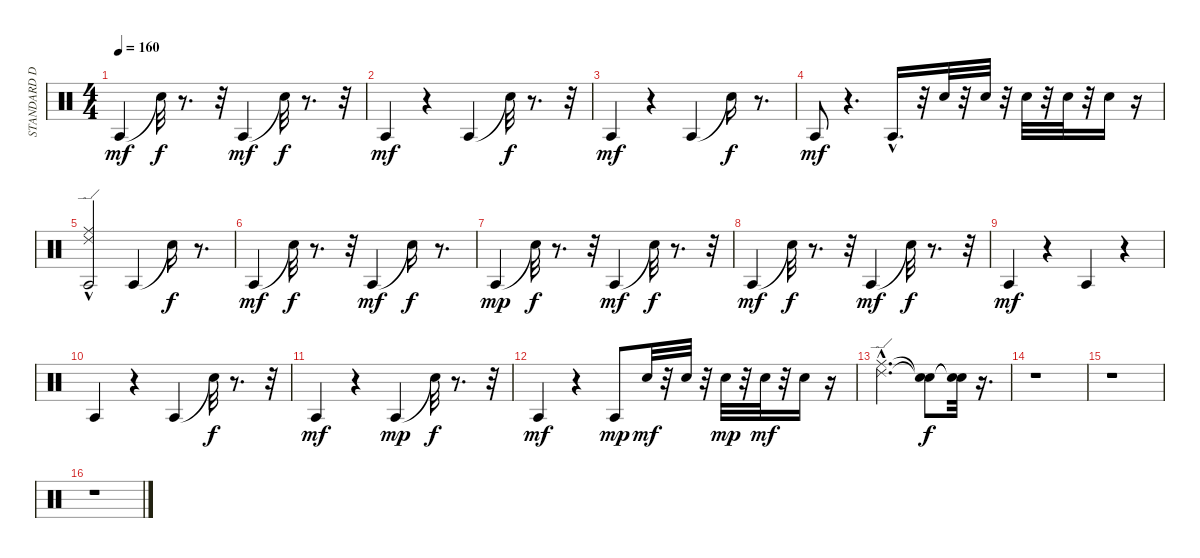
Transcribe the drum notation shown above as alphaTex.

\track ("STANDARD DRUMS" "STANDARD D") {instrument percussion}
\staff {score}
\articulation defaults
\ts (4 4)
\tempo 160
\clef neutral
\ks c "Agogo tow (hit)".4{dy mf} "Snare (hit)"{t}.32{dy f}
r.8{d} r.32 "Agogo tow (hit)".4{dy mf} "Snare (hit)"{t}.32{dy f} r.8{d} r.32 |
"Agogo tow (hit)".4{dy mf} r.4 "Agogo tow (hit)".4 "Snare (hit)"{t}.32{dy f} r.8{d} r.32 |
"Agogo tow (hit)".4{dy mf} r.4 "Agogo tow (hit)".4 "Snare (hit)"{t}.16{dy f} r.8{d} |
"Agogo tow (hit)".8{dy mf} r.4{d} "Agogo tow (hit)"{hac}.16{d} r.32 "Electric Snare (hit)".32 r.32 "Electric Snare (hit)".32 r.32 "Electric Snare (hit)".32 r.32 "Electric Snare (hit)".32 r.32 "Electric Snare (hit)".16 r.16 |
("Ride (edge) 2"{hac} "Ride (middle)" "Agogo tow (hit)").2 "Agogo tow (hit)".4 "Snare (hit)"{t}.16{dy f} r.8{d} |
"Agogo tow (hit)".4{dy mf} "Snare (hit)"{t}.32{dy f} r.8{d} r.32 "Agogo tow (hit)".4{dy mf} "Snare (hit)"{t}.16{dy f} r.8{d} |
"Agogo tow (hit)".4{dy mp} "Snare (hit)"{t}.32{dy f} r.8{d} r.32 "Agogo tow (hit)".4{dy mf} "Snare (hit)"{t}.32{dy f} r.8{d} r.32 |
"Agogo tow (hit)".4{dy mf} "Snare (hit)"{t}.32{dy f} r.8{d} r.32 "Agogo tow (hit)".4{dy mf} "Snare (hit)"{t}.32{dy f} r.8{d} r.32 |
"Agogo tow (hit)".4{dy mf} r.4 "Agogo tow (hit)".4 r.4 |
"Agogo tow (hit)".4 r.4 "Agogo tow (hit)".4 "Snare (hit)"{t}.32{dy f} r.8{d} r.32 |
"Agogo tow (hit)".4{dy mf} r.4 "Agogo tow (hit)".4{dy mp} "Snare (hit)"{t}.32{dy f} r.8{d} r.32 |
"Agogo tow (hit)".4{dy mf} r.4 "Agogo tow (hit)".8{dy mp} "Electric Snare (hit)".32{dy mf} r.32 "Electric Snare (hit)".32 r.32 "Electric Snare (hit)".32{dy mp} r.32 "Electric Snare (hit)".32{dy mf} r.32 "Electric Snare (hit)".16 r.16 |
("Ride (edge) 2"{hac} "Ride (middle)"{hac}).2{d} ("Snare (hit)"{t} "Snare (hit)"{t}).8{dy f} ("Snare (hit)"{t} "Snare (hit)"{t}).32 r.16{d} |
r.1 |
r.1 |
r.1
